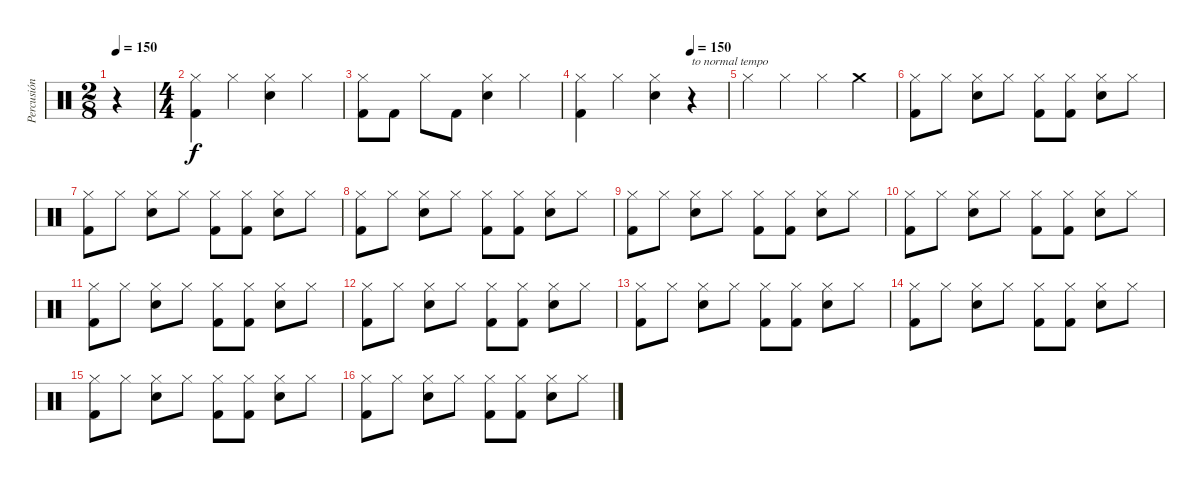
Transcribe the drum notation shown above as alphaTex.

\track ("Percusión" "Percusión") {instrument percussion}
\staff {score}
\articulation defaults
\ts (2 8)
\tempo 150
\tempo 100
\tempo 150
\clef neutral
\ks c
r.4{dy f} |
\ts (4 4)
("Hi-Hat (closed)" "Kick (hit) 2").4 "Hi-Hat (closed)".4 ("Hi-Hat (closed)" "Snare (hit) 2").4 "Hi-Hat (closed)".4 |
("Hi-Hat (closed)" "Kick (hit) 2").8 "Kick (hit) 2".8 "Hi-Hat (closed)".8 "Kick (hit) 2".8 ("Hi-Hat (closed)" "Snare (hit) 2").4 "Hi-Hat (closed)".4 |
\tempo (150 0.75)
("Hi-Hat (closed)" "Kick (hit) 2").4 "Hi-Hat (closed)".4 ("Hi-Hat (closed)" "Snare (hit) 2").4 r.4{txt "to normal tempo"} |
"Hi-Hat (closed)".4 "Hi-Hat (closed)".4 "Hi-Hat (closed)".4 "Crash medium (hit)".4 |
("Hi-Hat (closed)" "Kick (hit) 2").8 "Hi-Hat (closed)".8 ("Hi-Hat (closed)" "Snare (hit) 2").8 "Hi-Hat (closed)".8 ("Hi-Hat (closed)" "Kick (hit) 2").8 ("Hi-Hat (closed)" "Kick (hit) 2").8 ("Hi-Hat (closed)" "Snare (hit) 2").8 "Hi-Hat (closed)".8 |
("Hi-Hat (closed)" "Kick (hit) 2").8 "Hi-Hat (closed)".8 ("Hi-Hat (closed)" "Snare (hit) 2").8 "Hi-Hat (closed)".8 ("Hi-Hat (closed)" "Kick (hit) 2").8 ("Hi-Hat (closed)" "Kick (hit) 2").8 ("Hi-Hat (closed)" "Snare (hit) 2").8 "Hi-Hat (closed)".8 |
("Hi-Hat (closed)" "Kick (hit) 2").8 "Hi-Hat (closed)".8 ("Hi-Hat (closed)" "Snare (hit) 2").8 "Hi-Hat (closed)".8 ("Hi-Hat (closed)" "Kick (hit) 2").8 ("Hi-Hat (closed)" "Kick (hit) 2").8 ("Hi-Hat (closed)" "Snare (hit) 2").8 "Hi-Hat (closed)".8 |
("Hi-Hat (closed)" "Kick (hit) 2").8 "Hi-Hat (closed)".8 ("Hi-Hat (closed)" "Snare (hit) 2").8 "Hi-Hat (closed)".8 ("Hi-Hat (closed)" "Kick (hit) 2").8 ("Hi-Hat (closed)" "Kick (hit) 2").8 ("Hi-Hat (closed)" "Snare (hit) 2").8 "Hi-Hat (closed)".8 |
("Hi-Hat (closed)" "Kick (hit) 2").8 "Hi-Hat (closed)".8 ("Hi-Hat (closed)" "Snare (hit) 2").8 "Hi-Hat (closed)".8 ("Hi-Hat (closed)" "Kick (hit) 2").8 ("Hi-Hat (closed)" "Kick (hit) 2").8 ("Hi-Hat (closed)" "Snare (hit) 2").8 "Hi-Hat (closed)".8 |
("Hi-Hat (closed)" "Kick (hit) 2").8 "Hi-Hat (closed)".8 ("Hi-Hat (closed)" "Snare (hit) 2").8 "Hi-Hat (closed)".8 ("Hi-Hat (closed)" "Kick (hit) 2").8 ("Hi-Hat (closed)" "Kick (hit) 2").8 ("Hi-Hat (closed)" "Snare (hit) 2").8 "Hi-Hat (closed)".8 |
("Hi-Hat (closed)" "Kick (hit) 2").8 "Hi-Hat (closed)".8 ("Hi-Hat (closed)" "Snare (hit) 2").8 "Hi-Hat (closed)".8 ("Hi-Hat (closed)" "Kick (hit) 2").8 ("Hi-Hat (closed)" "Kick (hit) 2").8 ("Hi-Hat (closed)" "Snare (hit) 2").8 "Hi-Hat (closed)".8 |
("Hi-Hat (closed)" "Kick (hit) 2").8 "Hi-Hat (closed)".8 ("Hi-Hat (closed)" "Snare (hit) 2").8 "Hi-Hat (closed)".8 ("Hi-Hat (closed)" "Kick (hit) 2").8 ("Hi-Hat (closed)" "Kick (hit) 2").8 ("Hi-Hat (closed)" "Snare (hit) 2").8 "Hi-Hat (closed)".8 |
("Hi-Hat (closed)" "Kick (hit) 2").8 "Hi-Hat (closed)".8 ("Hi-Hat (closed)" "Snare (hit) 2").8 "Hi-Hat (closed)".8 ("Hi-Hat (closed)" "Kick (hit) 2").8 ("Hi-Hat (closed)" "Kick (hit) 2").8 ("Hi-Hat (closed)" "Snare (hit) 2").8 "Hi-Hat (closed)".8 |
("Hi-Hat (closed)" "Kick (hit) 2").8 "Hi-Hat (closed)".8 ("Hi-Hat (closed)" "Snare (hit) 2").8 "Hi-Hat (closed)".8 ("Hi-Hat (closed)" "Kick (hit) 2").8 ("Hi-Hat (closed)" "Kick (hit) 2").8 ("Hi-Hat (closed)" "Snare (hit) 2").8 "Hi-Hat (closed)".8 |
("Hi-Hat (closed)" "Kick (hit) 2").8 "Hi-Hat (closed)".8 ("Hi-Hat (closed)" "Snare (hit) 2").8 "Hi-Hat (closed)".8 ("Hi-Hat (closed)" "Kick (hit) 2").8 ("Hi-Hat (closed)" "Kick (hit) 2").8 ("Hi-Hat (closed)" "Snare (hit) 2").8 "Hi-Hat (closed)".8
